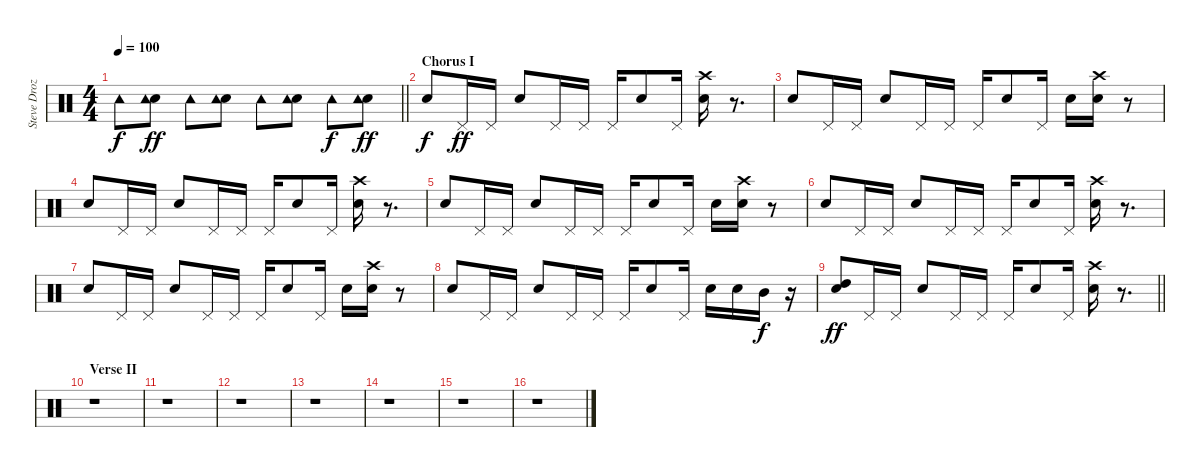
\track ("Steve Drozd" "Steve Droz") {instrument percussion}
\staff {score}
\articulation defaults
\ts (4 4)
\tempo 100
\clef neutral
\barLineRight lightlight
\ks c "Tambourine (hit)".8{dy f}
("Snare (hit) 2" "Tambourine (hit)").8{dy ff} "Tambourine (hit)".8 ("Snare (hit) 2" "Tambourine (hit)").8 "Tambourine (hit)".8 ("Snare (hit) 2" "Tambourine (hit)").8 "Tambourine (hit)".8{dy f} ("Snare (hit) 2" "Tambourine (hit)").8{dy ff} |
\section ("" "Chorus I")
"Snare (hit) 2".8{dy f} "Pedal Hi-Hat (hit)".16{dy ff} "Pedal Hi-Hat (hit)".16 "Snare (hit) 2".8 "Pedal Hi-Hat (hit)".16 "Pedal Hi-Hat (hit)".16 "Pedal Hi-Hat (hit)".16 "Snare (hit) 2".8 "Pedal Hi-Hat (hit)".16 ("Crash high (hit)" "Snare (hit) 2").16 r.8{d} |
"Snare (hit) 2".8 "Pedal Hi-Hat (hit)".16 "Pedal Hi-Hat (hit)".16 "Snare (hit) 2".8 "Pedal Hi-Hat (hit)".16 "Pedal Hi-Hat (hit)".16 "Pedal Hi-Hat (hit)".16 "Snare (hit) 2".8 "Pedal Hi-Hat (hit)".16 "Snare (hit) 2".16 ("Crash high (hit)" "Snare (hit) 2").16 r.8 |
"Snare (hit) 2".8 "Pedal Hi-Hat (hit)".16 "Pedal Hi-Hat (hit)".16 "Snare (hit) 2".8 "Pedal Hi-Hat (hit)".16 "Pedal Hi-Hat (hit)".16 "Pedal Hi-Hat (hit)".16 "Snare (hit) 2".8 "Pedal Hi-Hat (hit)".16 ("Crash high (hit)" "Snare (hit) 2").16 r.8{d} |
"Snare (hit) 2".8 "Pedal Hi-Hat (hit)".16 "Pedal Hi-Hat (hit)".16 "Snare (hit) 2".8 "Pedal Hi-Hat (hit)".16 "Pedal Hi-Hat (hit)".16 "Pedal Hi-Hat (hit)".16 "Snare (hit) 2".8 "Pedal Hi-Hat (hit)".16 "Snare (hit) 2".16 ("Crash high (hit)" "Snare (hit) 2").16 r.8 |
"Snare (hit) 2".8 "Pedal Hi-Hat (hit)".16 "Pedal Hi-Hat (hit)".16 "Snare (hit) 2".8 "Pedal Hi-Hat (hit)".16 "Pedal Hi-Hat (hit)".16 "Pedal Hi-Hat (hit)".16 "Snare (hit) 2".8 "Pedal Hi-Hat (hit)".16 ("Crash high (hit)" "Snare (hit) 2").16 r.8{d} |
"Snare (hit) 2".8 "Pedal Hi-Hat (hit)".16 "Pedal Hi-Hat (hit)".16 "Snare (hit) 2".8 "Pedal Hi-Hat (hit)".16 "Pedal Hi-Hat (hit)".16 "Pedal Hi-Hat (hit)".16 "Snare (hit) 2".8 "Pedal Hi-Hat (hit)".16 "Snare (hit) 2".16 ("Crash high (hit)" "Snare (hit) 2").16 r.8 |
"Snare (hit) 2".8 "Pedal Hi-Hat (hit)".16 "Pedal Hi-Hat (hit)".16 "Snare (hit) 2".8 "Pedal Hi-Hat (hit)".16 "Pedal Hi-Hat (hit)".16 "Pedal Hi-Hat (hit)".16 "Snare (hit) 2".8 "Pedal Hi-Hat (hit)".16 "Snare (hit) 2".16 "Snare (hit) 2".16 "Mid Tom (hit)".16{dy f} r.16 |
\barLineRight lightlight
("High Tom (hit)" "Snare (hit) 2").8{dy ff} "Pedal Hi-Hat (hit)".16 "Pedal Hi-Hat (hit)".16 "Snare (hit) 2".8 "Pedal Hi-Hat (hit)".16 "Pedal Hi-Hat (hit)".16 "Pedal Hi-Hat (hit)".16 "Snare (hit) 2".8 "Pedal Hi-Hat (hit)".16 ("Crash high (hit)" "Snare (hit) 2").16 r.8{d} |
\section ("" "Verse II")
r.1 |
r.1 |
r.1 |
r.1 |
r.1 |
r.1 |
r.1
